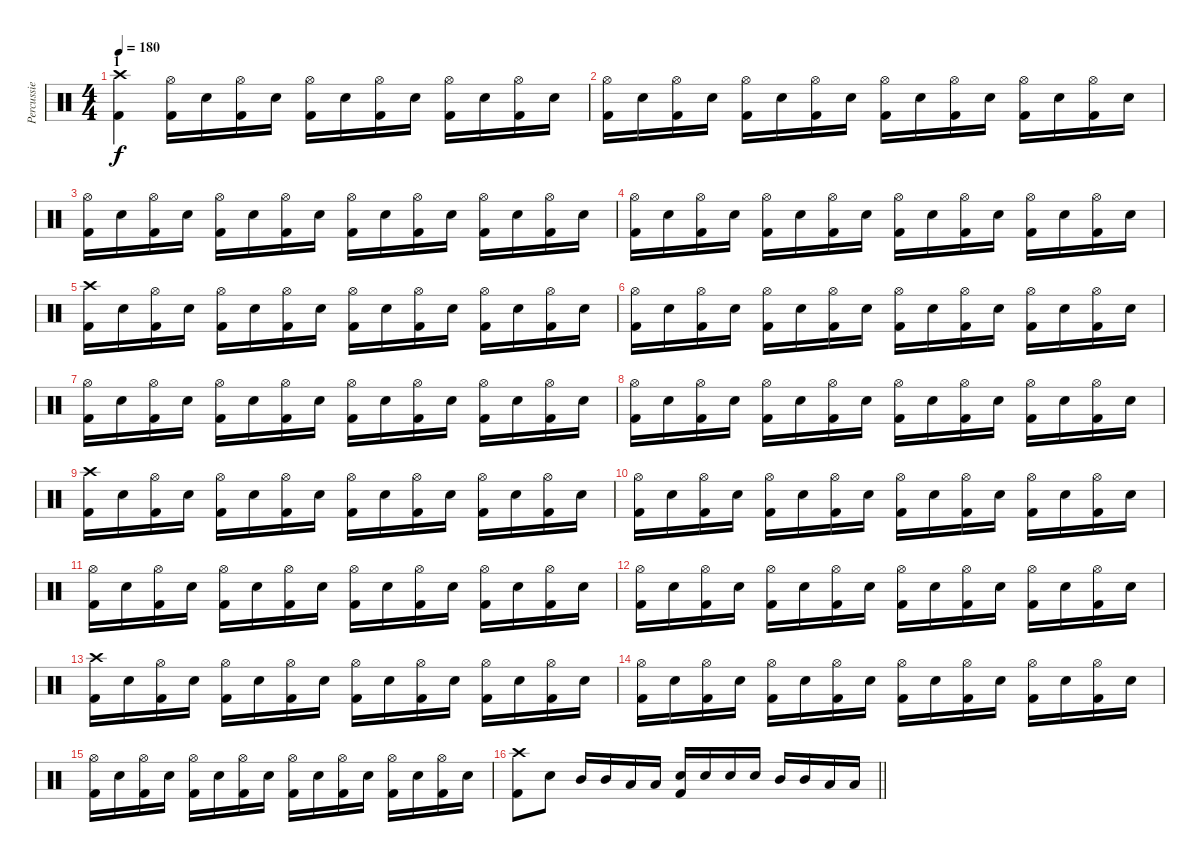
\track ("Percussie" "Percussie") {instrument percussion}
\staff {score}
\articulation defaults
\ts (4 4)
\section ("" "1")
\tempo 180
\clef neutral
\ks c
("Crash high (hit)" "Kick (hit) 2").4{dy f} ("Hi-Hat (open)" "Kick (hit) 2").16 "Snare (hit) 2".16 ("Hi-Hat (open)" "Kick (hit) 2").16 "Snare (hit) 2".16 ("Hi-Hat (open)" "Kick (hit) 2").16 "Snare (hit) 2".16 ("Hi-Hat (open)" "Kick (hit) 2").16 "Snare (hit) 2".16 ("Hi-Hat (open)" "Kick (hit) 2").16 "Snare (hit) 2".16 ("Hi-Hat (open)" "Kick (hit) 2").16 "Snare (hit) 2".16 |
("Hi-Hat (open)" "Kick (hit) 2").16 "Snare (hit) 2".16 ("Hi-Hat (open)" "Kick (hit) 2").16 "Snare (hit) 2".16 ("Hi-Hat (open)" "Kick (hit) 2").16 "Snare (hit) 2".16 ("Hi-Hat (open)" "Kick (hit) 2").16 "Snare (hit) 2".16 ("Hi-Hat (open)" "Kick (hit) 2").16 "Snare (hit) 2".16 ("Hi-Hat (open)" "Kick (hit) 2").16 "Snare (hit) 2".16 ("Hi-Hat (open)" "Kick (hit) 2").16 "Snare (hit) 2".16 ("Hi-Hat (open)" "Kick (hit) 2").16 "Snare (hit) 2".16 |
("Hi-Hat (open)" "Kick (hit) 2").16 "Snare (hit) 2".16 ("Hi-Hat (open)" "Kick (hit) 2").16 "Snare (hit) 2".16 ("Hi-Hat (open)" "Kick (hit) 2").16 "Snare (hit) 2".16 ("Hi-Hat (open)" "Kick (hit) 2").16 "Snare (hit) 2".16 ("Hi-Hat (open)" "Kick (hit) 2").16 "Snare (hit) 2".16 ("Hi-Hat (open)" "Kick (hit) 2").16 "Snare (hit) 2".16 ("Hi-Hat (open)" "Kick (hit) 2").16 "Snare (hit) 2".16 ("Hi-Hat (open)" "Kick (hit) 2").16 "Snare (hit) 2".16 |
("Hi-Hat (open)" "Kick (hit) 2").16 "Snare (hit) 2".16 ("Hi-Hat (open)" "Kick (hit) 2").16 "Snare (hit) 2".16 ("Hi-Hat (open)" "Kick (hit) 2").16 "Snare (hit) 2".16 ("Hi-Hat (open)" "Kick (hit) 2").16 "Snare (hit) 2".16 ("Hi-Hat (open)" "Kick (hit) 2").16 "Snare (hit) 2".16 ("Hi-Hat (open)" "Kick (hit) 2").16 "Snare (hit) 2".16 ("Hi-Hat (open)" "Kick (hit) 2").16 "Snare (hit) 2".16 ("Hi-Hat (open)" "Kick (hit) 2").16 "Snare (hit) 2".16 |
("Crash high (hit)" "Kick (hit) 2").16 "Snare (hit) 2".16 ("Hi-Hat (open)" "Kick (hit) 2").16 "Snare (hit) 2".16 ("Hi-Hat (open)" "Kick (hit) 2").16 "Snare (hit) 2".16 ("Hi-Hat (open)" "Kick (hit) 2").16 "Snare (hit) 2".16 ("Hi-Hat (open)" "Kick (hit) 2").16 "Snare (hit) 2".16 ("Hi-Hat (open)" "Kick (hit) 2").16 "Snare (hit) 2".16 ("Hi-Hat (open)" "Kick (hit) 2").16 "Snare (hit) 2".16 ("Hi-Hat (open)" "Kick (hit) 2").16 "Snare (hit) 2".16 |
("Hi-Hat (open)" "Kick (hit) 2").16 "Snare (hit) 2".16 ("Hi-Hat (open)" "Kick (hit) 2").16 "Snare (hit) 2".16 ("Hi-Hat (open)" "Kick (hit) 2").16 "Snare (hit) 2".16 ("Hi-Hat (open)" "Kick (hit) 2").16 "Snare (hit) 2".16 ("Hi-Hat (open)" "Kick (hit) 2").16 "Snare (hit) 2".16 ("Hi-Hat (open)" "Kick (hit) 2").16 "Snare (hit) 2".16 ("Hi-Hat (open)" "Kick (hit) 2").16 "Snare (hit) 2".16 ("Hi-Hat (open)" "Kick (hit) 2").16 "Snare (hit) 2".16 |
("Hi-Hat (open)" "Kick (hit) 2").16 "Snare (hit) 2".16 ("Hi-Hat (open)" "Kick (hit) 2").16 "Snare (hit) 2".16 ("Hi-Hat (open)" "Kick (hit) 2").16 "Snare (hit) 2".16 ("Hi-Hat (open)" "Kick (hit) 2").16 "Snare (hit) 2".16 ("Hi-Hat (open)" "Kick (hit) 2").16 "Snare (hit) 2".16 ("Hi-Hat (open)" "Kick (hit) 2").16 "Snare (hit) 2".16 ("Hi-Hat (open)" "Kick (hit) 2").16 "Snare (hit) 2".16 ("Hi-Hat (open)" "Kick (hit) 2").16 "Snare (hit) 2".16 |
("Hi-Hat (open)" "Kick (hit) 2").16 "Snare (hit) 2".16 ("Hi-Hat (open)" "Kick (hit) 2").16 "Snare (hit) 2".16 ("Hi-Hat (open)" "Kick (hit) 2").16 "Snare (hit) 2".16 ("Hi-Hat (open)" "Kick (hit) 2").16 "Snare (hit) 2".16 ("Hi-Hat (open)" "Kick (hit) 2").16 "Snare (hit) 2".16 ("Hi-Hat (open)" "Kick (hit) 2").16 "Snare (hit) 2".16 ("Hi-Hat (open)" "Kick (hit) 2").16 "Snare (hit) 2".16 ("Hi-Hat (open)" "Kick (hit) 2").16 "Snare (hit) 2".16 |
("Crash high (hit)" "Kick (hit) 2").16 "Snare (hit) 2".16 ("Hi-Hat (open)" "Kick (hit) 2").16 "Snare (hit) 2".16 ("Hi-Hat (open)" "Kick (hit) 2").16 "Snare (hit) 2".16 ("Hi-Hat (open)" "Kick (hit) 2").16 "Snare (hit) 2".16 ("Hi-Hat (open)" "Kick (hit) 2").16 "Snare (hit) 2".16 ("Hi-Hat (open)" "Kick (hit) 2").16 "Snare (hit) 2".16 ("Hi-Hat (open)" "Kick (hit) 2").16 "Snare (hit) 2".16 ("Hi-Hat (open)" "Kick (hit) 2").16 "Snare (hit) 2".16 |
("Hi-Hat (open)" "Kick (hit) 2").16 "Snare (hit) 2".16 ("Hi-Hat (open)" "Kick (hit) 2").16 "Snare (hit) 2".16 ("Hi-Hat (open)" "Kick (hit) 2").16 "Snare (hit) 2".16 ("Hi-Hat (open)" "Kick (hit) 2").16 "Snare (hit) 2".16 ("Hi-Hat (open)" "Kick (hit) 2").16 "Snare (hit) 2".16 ("Hi-Hat (open)" "Kick (hit) 2").16 "Snare (hit) 2".16 ("Hi-Hat (open)" "Kick (hit) 2").16 "Snare (hit) 2".16 ("Hi-Hat (open)" "Kick (hit) 2").16 "Snare (hit) 2".16 |
("Hi-Hat (open)" "Kick (hit) 2").16 "Snare (hit) 2".16 ("Hi-Hat (open)" "Kick (hit) 2").16 "Snare (hit) 2".16 ("Hi-Hat (open)" "Kick (hit) 2").16 "Snare (hit) 2".16 ("Hi-Hat (open)" "Kick (hit) 2").16 "Snare (hit) 2".16 ("Hi-Hat (open)" "Kick (hit) 2").16 "Snare (hit) 2".16 ("Hi-Hat (open)" "Kick (hit) 2").16 "Snare (hit) 2".16 ("Hi-Hat (open)" "Kick (hit) 2").16 "Snare (hit) 2".16 ("Hi-Hat (open)" "Kick (hit) 2").16 "Snare (hit) 2".16 |
("Hi-Hat (open)" "Kick (hit) 2").16 "Snare (hit) 2".16 ("Hi-Hat (open)" "Kick (hit) 2").16 "Snare (hit) 2".16 ("Hi-Hat (open)" "Kick (hit) 2").16 "Snare (hit) 2".16 ("Hi-Hat (open)" "Kick (hit) 2").16 "Snare (hit) 2".16 ("Hi-Hat (open)" "Kick (hit) 2").16 "Snare (hit) 2".16 ("Hi-Hat (open)" "Kick (hit) 2").16 "Snare (hit) 2".16 ("Hi-Hat (open)" "Kick (hit) 2").16 "Snare (hit) 2".16 ("Hi-Hat (open)" "Kick (hit) 2").16 "Snare (hit) 2".16 |
("Crash high (hit)" "Kick (hit) 2").16 "Snare (hit) 2".16 ("Hi-Hat (open)" "Kick (hit) 2").16 "Snare (hit) 2".16 ("Hi-Hat (open)" "Kick (hit) 2").16 "Snare (hit) 2".16 ("Hi-Hat (open)" "Kick (hit) 2").16 "Snare (hit) 2".16 ("Hi-Hat (open)" "Kick (hit) 2").16 "Snare (hit) 2".16 ("Hi-Hat (open)" "Kick (hit) 2").16 "Snare (hit) 2".16 ("Hi-Hat (open)" "Kick (hit) 2").16 "Snare (hit) 2".16 ("Hi-Hat (open)" "Kick (hit) 2").16 "Snare (hit) 2".16 |
("Hi-Hat (open)" "Kick (hit) 2").16 "Snare (hit) 2".16 ("Hi-Hat (open)" "Kick (hit) 2").16 "Snare (hit) 2".16 ("Hi-Hat (open)" "Kick (hit) 2").16 "Snare (hit) 2".16 ("Hi-Hat (open)" "Kick (hit) 2").16 "Snare (hit) 2".16 ("Hi-Hat (open)" "Kick (hit) 2").16 "Snare (hit) 2".16 ("Hi-Hat (open)" "Kick (hit) 2").16 "Snare (hit) 2".16 ("Hi-Hat (open)" "Kick (hit) 2").16 "Snare (hit) 2".16 ("Hi-Hat (open)" "Kick (hit) 2").16 "Snare (hit) 2".16 |
("Hi-Hat (open)" "Kick (hit) 2").16 "Snare (hit) 2".16 ("Hi-Hat (open)" "Kick (hit) 2").16 "Snare (hit) 2".16 ("Hi-Hat (open)" "Kick (hit) 2").16 "Snare (hit) 2".16 ("Hi-Hat (open)" "Kick (hit) 2").16 "Snare (hit) 2".16 ("Hi-Hat (open)" "Kick (hit) 2").16 "Snare (hit) 2".16 ("Hi-Hat (open)" "Kick (hit) 2").16 "Snare (hit) 2".16 ("Hi-Hat (open)" "Kick (hit) 2").16 "Snare (hit) 2".16 ("Hi-Hat (open)" "Kick (hit) 2").16 "Snare (hit) 2".16 |
\barLineRight lightlight
("Crash high (hit)" "Kick (hit) 2").8 "Snare (hit) 2".8 "Mid Tom (hit)".16 "Mid Tom (hit)".16 "Low Tom (hit)".16 "Low Tom (hit)".16 ("Snare (hit) 2" "Kick (hit) 2").16 "Snare (hit) 2".16 "Snare (hit) 2".16 "Snare (hit) 2".16 "Mid Tom (hit)".16 "Mid Tom (hit)".16 "Low Tom (hit)".16 "Low Tom (hit)".16
